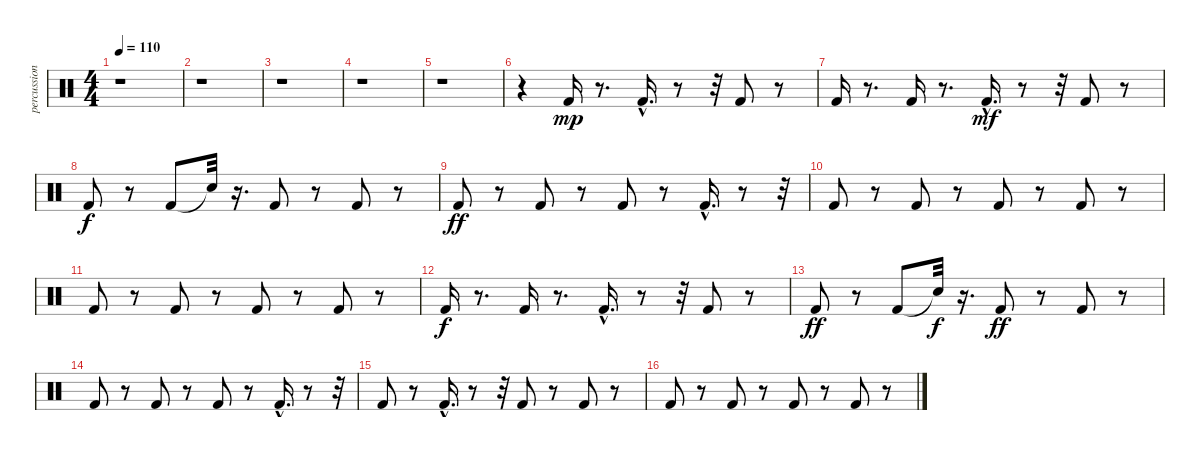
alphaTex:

\track ("percussions 1" "percussion") {instrument percussion}
\staff {score}
\articulation defaults
\ts (4 4)
\tempo 110
\clef neutral
\ks c
r.1{dy mp} |
r.1 |
r.1 |
r.1 |
r.1 |
r.4 "Kick (hit) 2".16 r.8{d} "Kick (hit) 2"{hac}.16{d} r.8 r.32 "Kick (hit) 2".8 r.8 |
"Kick (hit) 2".16 r.8{d} "Kick (hit) 2".16 r.8{d} "Kick (hit) 2"{hac}.16{d dy mf} r.8 r.32 "Kick (hit) 2".8 r.8 |
"Kick (hit) 2".8{dy f} r.8 "Kick (hit) 2".8 "Snare (hit)"{t}.32 r.16{d} "Kick (hit) 2".8 r.8 "Kick (hit) 2".8 r.8 |
"Kick (hit) 2".8{dy ff} r.8 "Kick (hit) 2".8 r.8 "Kick (hit) 2".8 r.8 "Kick (hit) 2"{hac}.16{d} r.8 r.32 |
"Kick (hit) 2".8 r.8 "Kick (hit) 2".8 r.8 "Kick (hit) 2".8 r.8 "Kick (hit) 2".8 r.8 |
"Kick (hit) 2".8 r.8 "Kick (hit) 2".8 r.8 "Kick (hit) 2".8 r.8 "Kick (hit) 2".8 r.8 |
"Kick (hit) 2".16{dy f} r.8{d} "Kick (hit) 2".16 r.8{d} "Kick (hit) 2"{hac}.16{d} r.8 r.32 "Kick (hit) 2".8 r.8 |
"Kick (hit) 2".8{dy ff} r.8 "Kick (hit) 2".8 "Snare (hit)"{t}.32{dy f} r.16{d} "Kick (hit) 2".8{dy ff} r.8 "Kick (hit) 2".8 r.8 |
"Kick (hit) 2".8 r.8 "Kick (hit) 2".8 r.8 "Kick (hit) 2".8 r.8 "Kick (hit) 2"{hac}.16{d} r.8 r.32 |
"Kick (hit) 2".8 r.8 "Kick (hit) 2"{hac}.16{d} r.8 r.32 "Kick (hit) 2".8 r.8 "Kick (hit) 2".8 r.8 |
"Kick (hit) 2".8 r.8 "Kick (hit) 2".8 r.8 "Kick (hit) 2".8 r.8 "Kick (hit) 2".8 r.8
